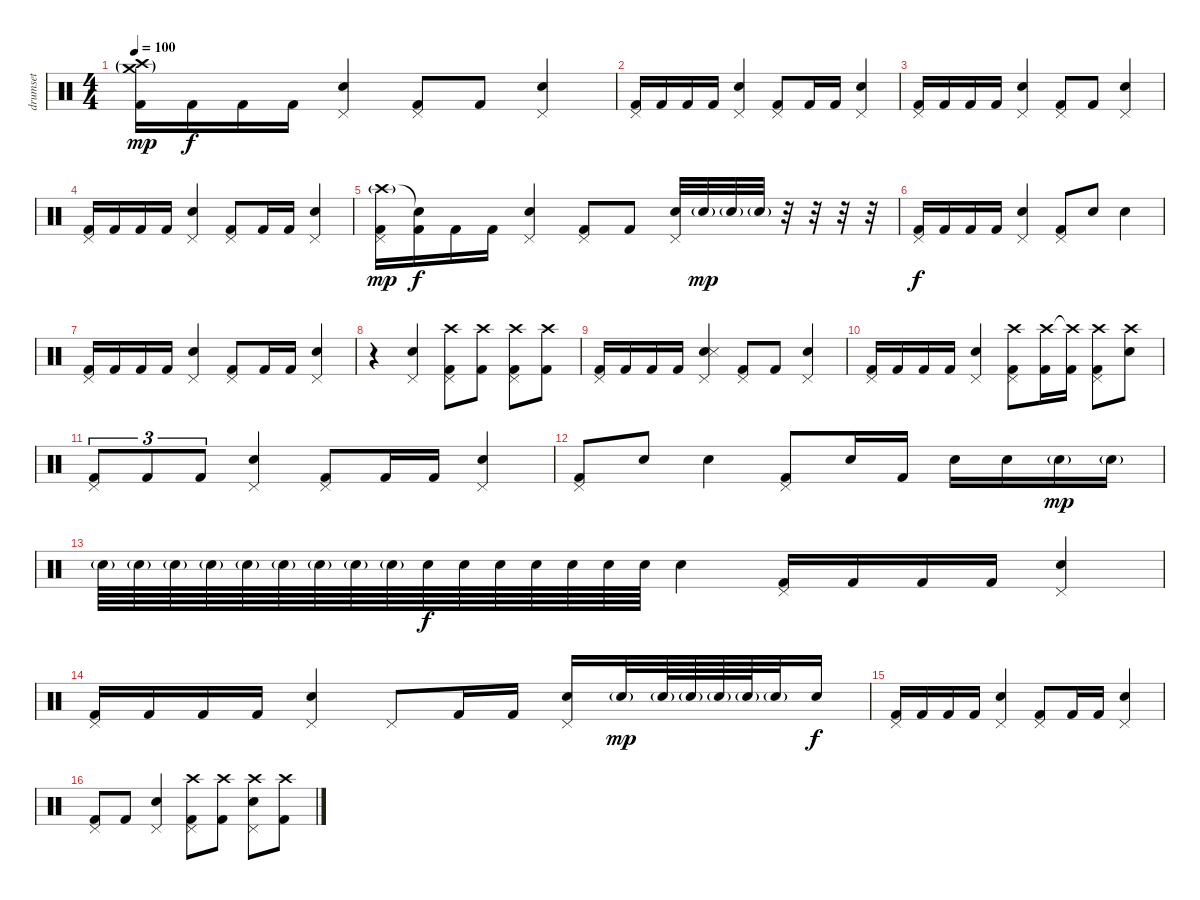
\track ("drumset" "drumset") {instrument percussion}
\staff {score}
\articulation defaults
\ts (4 4)
\tempo 100
\clef neutral
\ks c
("Crash medium (hit)"{g} "Crash high (hit)"{g} "Kick (hit) 2").16{dy mp} "Kick (hit) 2".16{dy f} "Kick (hit) 2".16 "Kick (hit) 2".16 ("Pedal Hi-Hat (hit)" "Electric Snare (hit)").4 ("Pedal Hi-Hat (hit)" "Kick (hit) 2").8 "Kick (hit) 2".8 ("Pedal Hi-Hat (hit)" "Electric Snare (hit)").4 |
("Pedal Hi-Hat (hit)" "Kick (hit) 2").16 "Kick (hit) 2".16 "Kick (hit) 2".16 "Kick (hit) 2".16 ("Pedal Hi-Hat (hit)" "Electric Snare (hit)").4 ("Pedal Hi-Hat (hit)" "Kick (hit) 2").8 "Kick (hit) 2".16 "Kick (hit) 2".16 ("Pedal Hi-Hat (hit)" "Electric Snare (hit)").4 |
("Pedal Hi-Hat (hit)" "Kick (hit) 2").16 "Kick (hit) 2".16 "Kick (hit) 2".16 "Kick (hit) 2".16 ("Pedal Hi-Hat (hit)" "Electric Snare (hit)").4 ("Pedal Hi-Hat (hit)" "Kick (hit) 2").8 "Kick (hit) 2".8 ("Pedal Hi-Hat (hit)" "Electric Snare (hit)").4 |
("Pedal Hi-Hat (hit)" "Kick (hit) 2").16 "Kick (hit) 2".16 "Kick (hit) 2".16 "Kick (hit) 2".16 ("Pedal Hi-Hat (hit)" "Electric Snare (hit)").4 ("Pedal Hi-Hat (hit)" "Kick (hit) 2").8 "Kick (hit) 2".16 "Kick (hit) 2".16 ("Pedal Hi-Hat (hit)" "Electric Snare (hit)").4 |
("Crash high (hit)"{g} "Pedal Hi-Hat (hit)" "Kick (hit) 2").16{dy mp} ("Snare (hit)"{t} "Kick (hit) 2").16{dy f} "Kick (hit) 2".16 "Kick (hit) 2".16 ("Pedal Hi-Hat (hit)" "Electric Snare (hit)").4 ("Pedal Hi-Hat (hit)" "Kick (hit) 2").8 "Kick (hit) 2".8 ("Pedal Hi-Hat (hit)" "Electric Snare (hit)").32 "Electric Snare (hit)"{g}.32{dy mp} "Electric Snare (hit)"{g}.32 "Electric Snare (hit)"{g}.32 r.32 r.32 r.32 r.32 |
("Pedal Hi-Hat (hit)" "Kick (hit) 2").16{dy f} "Kick (hit) 2".16 "Kick (hit) 2".16 "Kick (hit) 2".16 ("Pedal Hi-Hat (hit)" "Electric Snare (hit)").4 ("Pedal Hi-Hat (hit)" "Kick (hit) 2").8 "Electric Snare (hit)".8 "Electric Snare (hit)".4 |
("Pedal Hi-Hat (hit)" "Kick (hit) 2").16 "Kick (hit) 2".16 "Kick (hit) 2".16 "Kick (hit) 2".16 ("Pedal Hi-Hat (hit)" "Electric Snare (hit)").4 ("Pedal Hi-Hat (hit)" "Kick (hit) 2").8 "Kick (hit) 2".16 "Kick (hit) 2".16 ("Pedal Hi-Hat (hit)" "Electric Snare (hit)").4 |
r.4 ("Pedal Hi-Hat (hit)" "Electric Snare (hit)").4 ("Pedal Hi-Hat (hit)" "Crash high (hit)" "Kick (hit) 2").8 ("Crash high (hit)" "Kick (hit) 2").8 ("Pedal Hi-Hat (hit)" "Crash high (hit)" "Kick (hit) 2").8 ("Crash high (hit)" "Kick (hit) 2").8 |
("Pedal Hi-Hat (hit)" "Kick (hit) 2").16 "Kick (hit) 2".16 "Kick (hit) 2".16 "Kick (hit) 2".16 ("Pedal Hi-Hat (hit)" "Electric Snare (hit)" "Snare (side stick) 3").4 ("Pedal Hi-Hat (hit)" "Kick (hit) 2").8 "Kick (hit) 2".8 ("Pedal Hi-Hat (hit)" "Electric Snare (hit)").4 |
("Pedal Hi-Hat (hit)" "Kick (hit) 2").16 "Kick (hit) 2".16 "Kick (hit) 2".16 "Kick (hit) 2".16 ("Pedal Hi-Hat (hit)" "Electric Snare (hit)").4 ("Pedal Hi-Hat (hit)" "Crash high (hit)" "Kick (hit) 2").8 ("Crash high (hit)" "Kick (hit) 2").16 ("Crash high (hit)"{t} "Kick (hit) 2").16 ("Pedal Hi-Hat (hit)" "Crash high (hit)" "Kick (hit) 2").8 ("Crash high (hit)" "Electric Snare (hit)").8 |
("Pedal Hi-Hat (hit)" "Kick (hit) 2").8{tu (3 2)} "Kick (hit) 2".8{tu (3 2)} "Kick (hit) 2".8{tu (3 2)} ("Pedal Hi-Hat (hit)" "Electric Snare (hit)").4 ("Pedal Hi-Hat (hit)" "Kick (hit) 2").8 "Kick (hit) 2".16 "Kick (hit) 2".16 ("Pedal Hi-Hat (hit)" "Electric Snare (hit)").4 |
("Pedal Hi-Hat (hit)" "Kick (hit) 2").8 "Electric Snare (hit)".8 "Electric Snare (hit)".4 ("Pedal Hi-Hat (hit)" "Kick (hit) 2").8 "Electric Snare (hit)".16 "Kick (hit) 2".16 "Electric Snare (hit)".16 "Electric Snare (hit)".16 "Electric Snare (hit)"{g}.16{dy mp} "Electric Snare (hit)"{g}.16 |
"Electric Snare (hit)"{g}.64 "Electric Snare (hit)"{g}.64 "Electric Snare (hit)"{g}.64 "Electric Snare (hit)"{g}.64 "Electric Snare (hit)"{g}.64 "Electric Snare (hit)"{g}.64 "Electric Snare (hit)"{g}.64 "Electric Snare (hit)"{g}.64 "Electric Snare (hit)"{g}.64 "Electric Snare (hit)".64{dy f} "Electric Snare (hit)".64 "Electric Snare (hit)".64 "Electric Snare (hit)".64 "Electric Snare (hit)".64 "Electric Snare (hit)".64 "Electric Snare (hit)".64 "Electric Snare (hit)".4 ("Pedal Hi-Hat (hit)" "Kick (hit) 2").16 "Kick (hit) 2".16 "Kick (hit) 2".16 "Kick (hit) 2".16 ("Pedal Hi-Hat (hit)" "Electric Snare (hit)").4 |
("Pedal Hi-Hat (hit)" "Kick (hit) 2").16 "Kick (hit) 2".16 "Kick (hit) 2".16 "Kick (hit) 2".16 ("Pedal Hi-Hat (hit)" "Electric Snare (hit)").4 "Pedal Hi-Hat (hit)".8 "Kick (hit) 2".16 "Kick (hit) 2".16 ("Pedal Hi-Hat (hit)" "Electric Snare (hit)").16 "Electric Snare (hit)"{g}.32{dy mp} "Electric Snare (hit)"{g}.64 "Electric Snare (hit)"{g}.64 "Electric Snare (hit)"{g}.64 "Electric Snare (hit)"{g}.64 "Electric Snare (hit)"{g}.32 "Electric Snare (hit)".16{dy f} |
("Pedal Hi-Hat (hit)" "Kick (hit) 2").16 "Kick (hit) 2".16 "Kick (hit) 2".16 "Kick (hit) 2".16 ("Pedal Hi-Hat (hit)" "Electric Snare (hit)").4 ("Pedal Hi-Hat (hit)" "Kick (hit) 2").8 "Kick (hit) 2".16 "Kick (hit) 2".16 ("Pedal Hi-Hat (hit)" "Electric Snare (hit)").4 |
("Pedal Hi-Hat (hit)" "Kick (hit) 2").8 "Kick (hit) 2".8 ("Pedal Hi-Hat (hit)" "Electric Snare (hit)").4 ("Pedal Hi-Hat (hit)" "Crash high (hit)" "Kick (hit) 2").8 ("Crash high (hit)" "Kick (hit) 2").8 ("Pedal Hi-Hat (hit)" "Crash high (hit)" "Electric Snare (hit)").8 ("Crash high (hit)" "Kick (hit) 2").8
